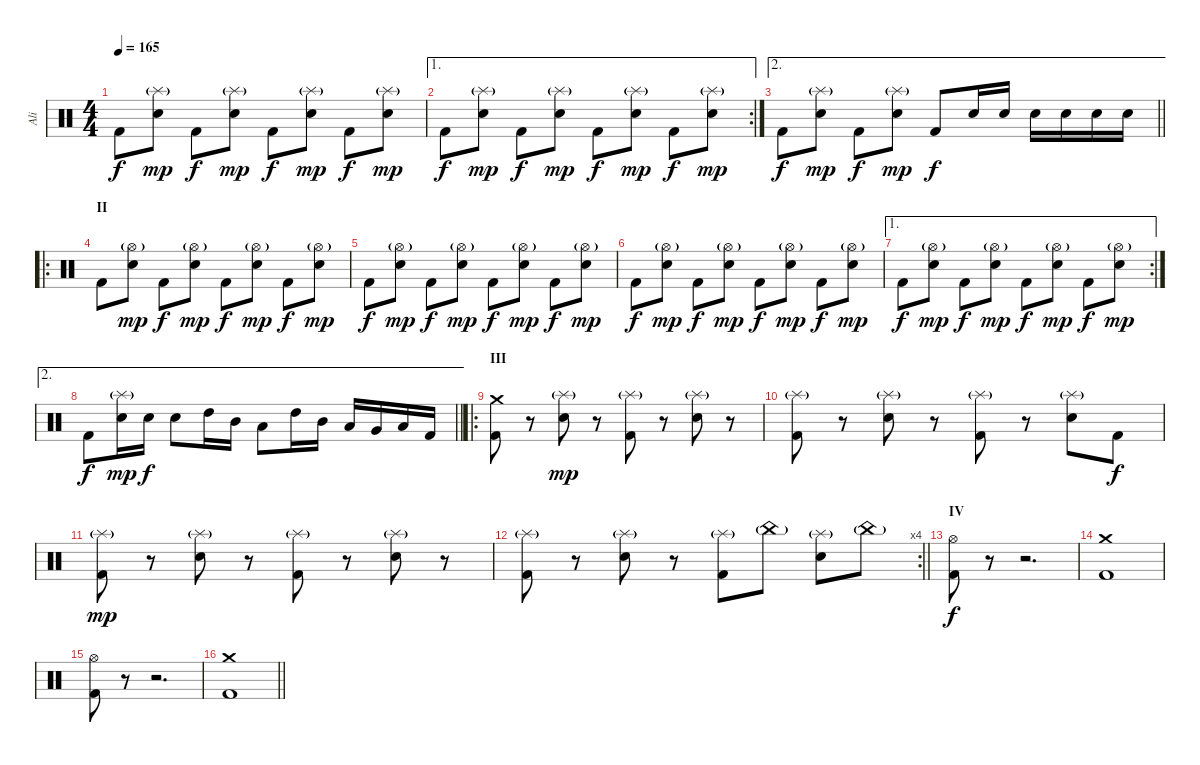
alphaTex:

\track ("Ali" "Ali") {instrument percussion}
\staff {score}
\articulation defaults
\ts (4 4)
\tempo 165
\clef neutral
\ks c "Kick (hit) 2".8{dy f}
("Snare (hit) 2" "Splash (hit)"{g}).8{dy mp} "Kick (hit) 2".8{dy f} ("Snare (hit) 2" "Splash (hit)"{g}).8{dy mp} "Kick (hit) 2".8{dy f} ("Snare (hit) 2" "Splash (hit)"{g}).8{dy mp} "Kick (hit) 2".8{dy f} ("Snare (hit) 2" "Splash (hit)"{g}).8{dy mp} |
\ae 1
\rc 2 "Kick (hit) 2".8{dy f}
("Snare (hit) 2" "Splash (hit)"{g}).8{dy mp} "Kick (hit) 2".8{dy f} ("Snare (hit) 2" "Splash (hit)"{g}).8{dy mp} "Kick (hit) 2".8{dy f} ("Snare (hit) 2" "Splash (hit)"{g}).8{dy mp} "Kick (hit) 2".8{dy f} ("Snare (hit) 2" "Splash (hit)"{g}).8{dy mp} |
\ae 2
\barLineRight lightlight "Kick (hit) 2".8{dy f}
("Snare (hit) 2" "Splash (hit)"{g}).8{dy mp} "Kick (hit) 2".8{dy f} ("Snare (hit) 2" "Splash (hit)"{g}).8{dy mp} "Kick (hit) 2".8{dy f} "Snare (hit) 2".16 "Snare (hit) 2".16 "Snare (hit) 2".16 "Snare (hit) 2".16 "Snare (hit) 2".16 "Snare (hit) 2".16 |
\ro
\section ("" "II")
"Kick (hit) 2".8 ("Snare (hit) 2" "Hi-Hat (open)"{g}).8{dy mp} "Kick (hit) 2".8{dy f} ("Snare (hit) 2" "Hi-Hat (open)"{g}).8{dy mp} "Kick (hit) 2".8{dy f} ("Snare (hit) 2" "Hi-Hat (open)"{g}).8{dy mp} "Kick (hit) 2".8{dy f} ("Snare (hit) 2" "Hi-Hat (open)"{g}).8{dy mp} |
"Kick (hit) 2".8{dy f} ("Snare (hit) 2" "Hi-Hat (open)"{g}).8{dy mp} "Kick (hit) 2".8{dy f} ("Snare (hit) 2" "Hi-Hat (open)"{g}).8{dy mp} "Kick (hit) 2".8{dy f} ("Snare (hit) 2" "Hi-Hat (open)"{g}).8{dy mp} "Kick (hit) 2".8{dy f} ("Snare (hit) 2" "Hi-Hat (open)"{g}).8{dy mp} |
"Kick (hit) 2".8{dy f} ("Snare (hit) 2" "Hi-Hat (open)"{g}).8{dy mp} "Kick (hit) 2".8{dy f} ("Snare (hit) 2" "Hi-Hat (open)"{g}).8{dy mp} "Kick (hit) 2".8{dy f} ("Snare (hit) 2" "Hi-Hat (open)"{g}).8{dy mp} "Kick (hit) 2".8{dy f} ("Snare (hit) 2" "Hi-Hat (open)"{g}).8{dy mp} |
\ae 1
\rc 2 "Kick (hit) 2".8{dy f}
("Snare (hit) 2" "Hi-Hat (open)"{g}).8{dy mp} "Kick (hit) 2".8{dy f} ("Snare (hit) 2" "Hi-Hat (open)"{g}).8{dy mp} "Kick (hit) 2".8{dy f} ("Snare (hit) 2" "Hi-Hat (open)"{g}).8{dy mp} "Kick (hit) 2".8{dy f} ("Snare (hit) 2" "Hi-Hat (open)"{g}).8{dy mp} |
\ae 2
\barLineRight lightlight "Kick (hit) 2".8{dy f}
("Snare (hit) 2" "Splash (hit)"{g}).16{dy mp} "Snare (hit) 2".16{dy f} "Snare (hit) 2".8 "High Tom (hit)".16 "Mid Tom (hit)".16 "Low Tom (hit)".8 "High Tom (hit)".16 "Mid Tom (hit)".16 "Low Tom (hit)".16 "Very Low Tom (hit)".16 "Low Floor Tom (hit)".16 "Kick (hit) 2".16 |
\ro
\section ("" "III")
("Kick (hit) 2" "Crash medium (hit)").8 r.8 ("Electric Snare (hit)" "Splash (hit)"{g}).8{dy mp} r.8 ("Kick (hit) 2" "Splash (hit)"{g}).8 r.8 ("Electric Snare (hit)" "Splash (hit)"{g}).8 r.8 |
("Kick (hit) 2" "Splash (hit)"{g}).8 r.8 ("Electric Snare (hit)" "Splash (hit)"{g}).8 r.8 ("Kick (hit) 2" "Splash (hit)"{g}).8 r.8 ("Electric Snare (hit)" "Splash (hit)"{g}).8 "Kick (hit) 2".8{dy f} |
("Kick (hit) 2" "Splash (hit)"{g}).8{dy mp} r.8 ("Electric Snare (hit)" "Splash (hit)"{g}).8 r.8 ("Kick (hit) 2" "Splash (hit)"{g}).8 r.8 ("Electric Snare (hit)" "Splash (hit)"{g}).8 r.8 |
\rc 4
\barLineRight lightlight
("Kick (hit) 2" "Splash (hit)"{g}).8 r.8 ("Electric Snare (hit)" "Splash (hit)"{g}).8 r.8 ("Kick (hit) 2" "Splash (hit)"{g}).8 "China (hit)"{g}.8 ("Electric Snare (hit)" "Splash (hit)"{g}).8 "China (hit)"{g}.8 |
\section ("" "IV")
("Kick (hit) 2" "Hi-Hat (open)").8{dy f} r.8 r.2{d} |
("Kick (hit) 2" "Crash medium (hit)").1 |
("Kick (hit) 2" "Hi-Hat (open)").8 r.8 r.2{d} |
\barLineRight lightlight
("Kick (hit) 2" "Crash medium (hit)").1
